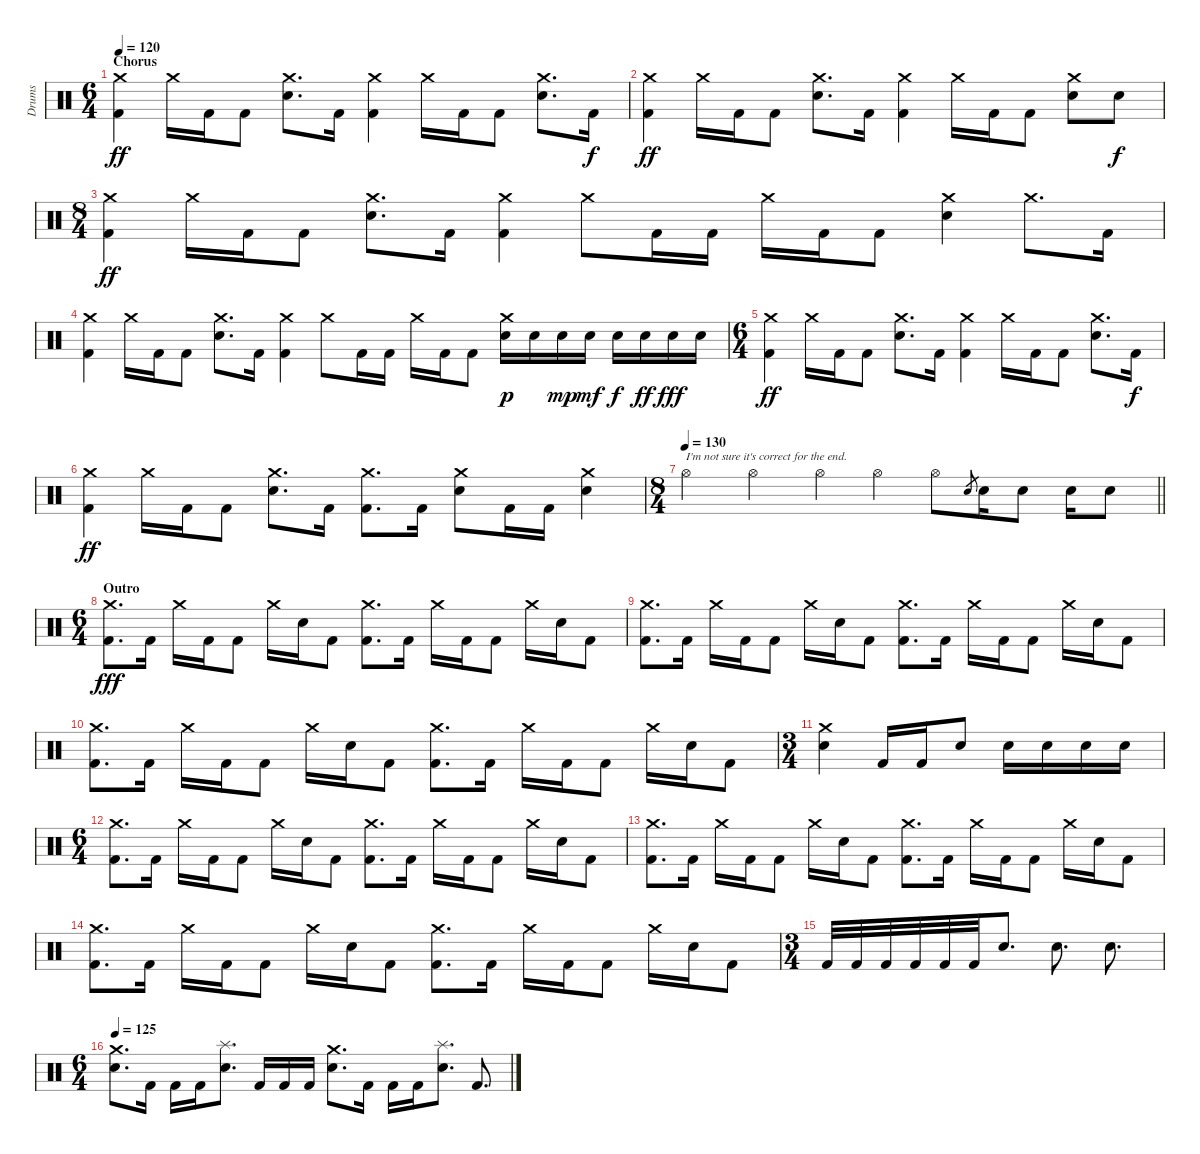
\track ("Drums" "Drums") {instrument percussion}
\staff {score}
\articulation defaults
\ts (6 4)
\section ("" "Chorus")
\tempo 120
\clef neutral
\ks c
("Crash medium (hit)" "Kick (hit) 2").4{dy ff} "Crash medium (hit)".16 "Kick (hit) 2".16 "Kick (hit) 2".8 ("Crash medium (hit)" "Electric Snare (hit)").8{d} "Kick (hit) 2".16 ("Crash medium (hit)" "Kick (hit) 2").4 "Crash medium (hit)".16 "Kick (hit) 2".16 "Kick (hit) 2".8 ("Crash medium (hit)" "Electric Snare (hit)").8{d} "Kick (hit) 2".16{dy f} |
("Crash medium (hit)" "Kick (hit) 2").4{dy ff} "Crash medium (hit)".16 "Kick (hit) 2".16 "Kick (hit) 2".8 ("Crash medium (hit)" "Electric Snare (hit)").8{d} "Kick (hit) 2".16 ("Crash medium (hit)" "Kick (hit) 2").4 "Crash medium (hit)".16 "Kick (hit) 2".16 "Kick (hit) 2".8 ("Crash medium (hit)" "Electric Snare (hit)").8 "Electric Snare (hit)".8{dy f} |
\ts (8 4)
("Crash medium (hit)" "Kick (hit) 2").4{dy ff} "Crash medium (hit)".16 "Kick (hit) 2".16 "Kick (hit) 2".8 ("Crash medium (hit)" "Electric Snare (hit)").8{d} "Kick (hit) 2".16 ("Crash medium (hit)" "Kick (hit) 2").4 "Crash medium (hit)".8 "Kick (hit) 2".16 "Kick (hit) 2".16 "Crash medium (hit)".16 "Kick (hit) 2".16 "Kick (hit) 2".8 ("Crash medium (hit)" "Electric Snare (hit)").4 "Crash medium (hit)".8{d} "Kick (hit) 2".16 |
("Crash medium (hit)" "Kick (hit) 2").4 "Crash medium (hit)".16 "Kick (hit) 2".16 "Kick (hit) 2".8 ("Crash medium (hit)" "Electric Snare (hit)").8{d} "Kick (hit) 2".16 ("Crash medium (hit)" "Kick (hit) 2").4 "Crash medium (hit)".8 "Kick (hit) 2".16 "Kick (hit) 2".16 "Crash medium (hit)".16 "Kick (hit) 2".16 "Kick (hit) 2".8 ("Crash medium (hit)" "Electric Snare (hit)").16{dy p} "Electric Snare (hit)".16 "Electric Snare (hit)".16{dy mp} "Electric Snare (hit)".16{dy mf} "Electric Snare (hit)".16{dy f} "Electric Snare (hit)".16{dy ff} "Electric Snare (hit)".16{dy fff} "Electric Snare (hit)".16 |
\ts (6 4)
("Crash medium (hit)" "Kick (hit) 2").4{dy ff} "Crash medium (hit)".16 "Kick (hit) 2".16 "Kick (hit) 2".8 ("Crash medium (hit)" "Electric Snare (hit)").8{d} "Kick (hit) 2".16 ("Crash medium (hit)" "Kick (hit) 2").4 "Crash medium (hit)".16 "Kick (hit) 2".16 "Kick (hit) 2".8 ("Crash medium (hit)" "Electric Snare (hit)").8{d} "Kick (hit) 2".16{dy f} |
("Crash medium (hit)" "Kick (hit) 2").4{dy ff} "Crash medium (hit)".16 "Kick (hit) 2".16 "Kick (hit) 2".8 ("Crash medium (hit)" "Electric Snare (hit)").8{d} "Kick (hit) 2".16 ("Crash medium (hit)" "Kick (hit) 2").8{d} "Kick (hit) 2".16 ("Crash medium (hit)" "Electric Snare (hit)").8 "Kick (hit) 2".16 "Kick (hit) 2".16 ("Crash medium (hit)" "Electric Snare (hit)").4 |
\ts (8 4)
\tempo 130
\barLineRight lightlight "Hi-Hat (open)".2{txt "I'm not sure it's correct for the end."} "Hi-Hat (open)".2 "Hi-Hat (open)".4 "Hi-Hat (open)".4 "Hi-Hat (open)".8 "Electric Snare (hit)".8{gr} "Electric Snare (hit)".16 "Electric Snare (hit)".8 "Electric Snare (hit)".16 "Electric Snare (hit)".8
|
\ts (6 4)
\section ("" "Outro")
("Crash medium (hit)" "Kick (hit) 2").8{d dy fff} "Kick (hit) 2".16 "Crash medium (hit)".16 "Kick (hit) 2".16 "Kick (hit) 2".8 "Crash medium (hit)".16 "Electric Snare (hit)".16 "Kick (hit) 2".8 ("Crash medium (hit)" "Kick (hit) 2").8{d} "Kick (hit) 2".16 "Crash medium (hit)".16 "Kick (hit) 2".16 "Kick (hit) 2".8 "Crash medium (hit)".16 "Electric Snare (hit)".16 "Kick (hit) 2".8 |
("Crash medium (hit)" "Kick (hit) 2").8{d} "Kick (hit) 2".16 "Crash medium (hit)".16 "Kick (hit) 2".16 "Kick (hit) 2".8 "Crash medium (hit)".16 "Electric Snare (hit)".16 "Kick (hit) 2".8 ("Crash medium (hit)" "Kick (hit) 2").8{d} "Kick (hit) 2".16 "Crash medium (hit)".16 "Kick (hit) 2".16 "Kick (hit) 2".8 "Crash medium (hit)".16 "Electric Snare (hit)".16 "Kick (hit) 2".8 |
("Crash medium (hit)" "Kick (hit) 2").8{d} "Kick (hit) 2".16 "Crash medium (hit)".16 "Kick (hit) 2".16 "Kick (hit) 2".8 "Crash medium (hit)".16 "Electric Snare (hit)".16 "Kick (hit) 2".8 ("Crash medium (hit)" "Kick (hit) 2").8{d} "Kick (hit) 2".16 "Crash medium (hit)".16 "Kick (hit) 2".16 "Kick (hit) 2".8 "Crash medium (hit)".16 "Electric Snare (hit)".16 "Kick (hit) 2".8 |
\ts (3 4)
("Crash medium (hit)" "Electric Snare (hit)").4 "Kick (hit) 2".16 "Kick (hit) 2".16 "Electric Snare (hit)".8 "Electric Snare (hit)".16 "Electric Snare (hit)".16 "Electric Snare (hit)".16 "Electric Snare (hit)".16 |
\ts (6 4)
("Crash medium (hit)" "Kick (hit) 2").8{d} "Kick (hit) 2".16 "Crash medium (hit)".16 "Kick (hit) 2".16 "Kick (hit) 2".8 "Crash medium (hit)".16 "Electric Snare (hit)".16 "Kick (hit) 2".8 ("Crash medium (hit)" "Kick (hit) 2").8{d} "Kick (hit) 2".16 "Crash medium (hit)".16 "Kick (hit) 2".16 "Kick (hit) 2".8 "Crash medium (hit)".16 "Electric Snare (hit)".16 "Kick (hit) 2".8 |
("Crash medium (hit)" "Kick (hit) 2").8{d} "Kick (hit) 2".16 "Crash medium (hit)".16 "Kick (hit) 2".16 "Kick (hit) 2".8 "Crash medium (hit)".16 "Electric Snare (hit)".16 "Kick (hit) 2".8 ("Crash medium (hit)" "Kick (hit) 2").8{d} "Kick (hit) 2".16 "Crash medium (hit)".16 "Kick (hit) 2".16 "Kick (hit) 2".8 "Crash medium (hit)".16 "Electric Snare (hit)".16 "Kick (hit) 2".8 |
("Crash medium (hit)" "Kick (hit) 2").8{d} "Kick (hit) 2".16 "Crash medium (hit)".16 "Kick (hit) 2".16 "Kick (hit) 2".8 "Crash medium (hit)".16 "Electric Snare (hit)".16 "Kick (hit) 2".8 ("Crash medium (hit)" "Kick (hit) 2").8{d} "Kick (hit) 2".16 "Crash medium (hit)".16 "Kick (hit) 2".16 "Kick (hit) 2".8 "Crash medium (hit)".16 "Electric Snare (hit)".16 "Kick (hit) 2".8 |
\ts (3 4)
"Kick (hit) 2".32 "Kick (hit) 2".32 "Kick (hit) 2".32 "Kick (hit) 2".32 "Kick (hit) 2".32 "Kick (hit) 2".32 "Electric Snare (hit)".8{d} "Electric Snare (hit)".8{d} "Electric Snare (hit)".8{d} |
\ts (6 4)
\tempo 125
("Crash medium (hit)" "Electric Snare (hit)").8{d} "Kick (hit) 2".16 "Kick (hit) 2".16 "Kick (hit) 2".16 ("Splash (hit)" "Electric Snare (hit)").8{d} "Kick (hit) 2".16 "Kick (hit) 2".16 "Kick (hit) 2".16 ("Crash medium (hit)" "Electric Snare (hit)").8{d} "Kick (hit) 2".16 "Kick (hit) 2".16 "Kick (hit) 2".16 ("Splash (hit)" "Electric Snare (hit)").8{d} "Kick (hit) 2".8{d}
